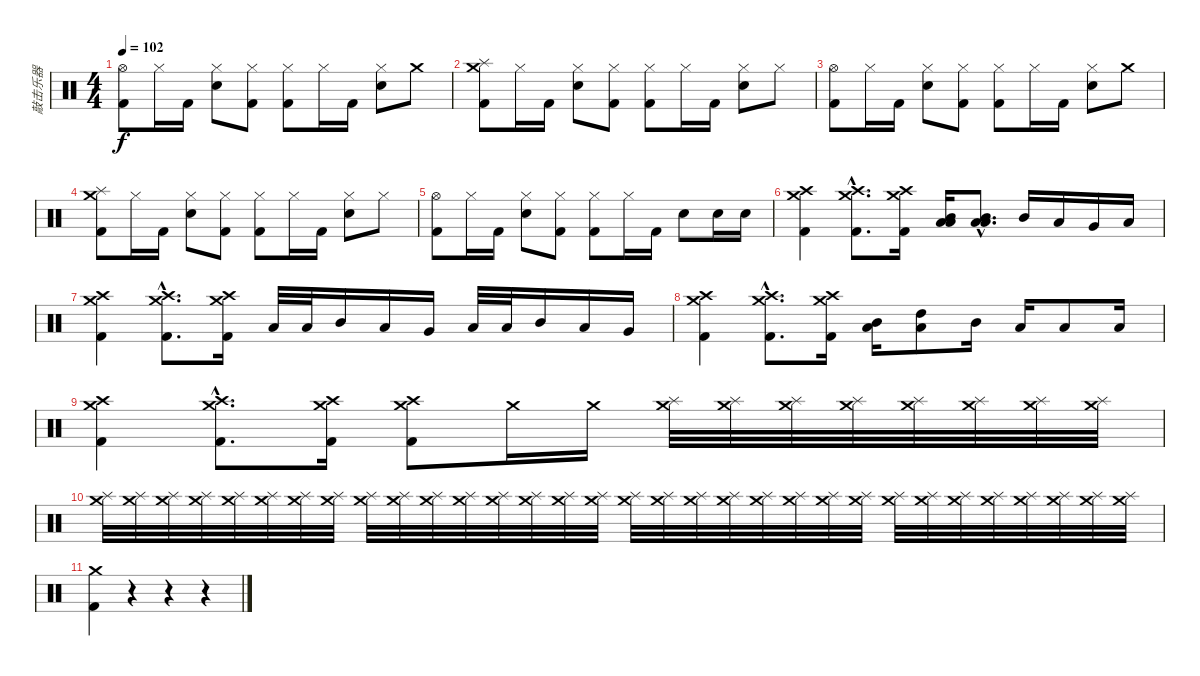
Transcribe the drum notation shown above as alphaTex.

\track ("敲击乐器" "敲击乐器") {instrument percussion}
\staff {score}
\articulation defaults
\ts (4 4)
\tempo 102
\clef neutral
\ks c
("Hi-Hat (open)" "Kick (hit) 2").8{dy f} "Hi-Hat (closed)".16 "Kick (hit) 2".16 ("Hi-Hat (closed)" "Electric Snare (hit)").8 ("Hi-Hat (closed)" "Kick (hit) 2").8 ("Hi-Hat (closed)" "Kick (hit) 2").8 "Hi-Hat (closed)".16 "Kick (hit) 2".16 ("Hi-Hat (closed)" "Electric Snare (hit)").8 "Crash medium (hit)".8 |
("Splash (hit)" "Crash medium (hit)" "Kick (hit) 2").8 "Hi-Hat (closed)".16 "Kick (hit) 2".16 ("Hi-Hat (closed)" "Electric Snare (hit)").8 ("Hi-Hat (closed)" "Kick (hit) 2").8 ("Hi-Hat (closed)" "Kick (hit) 2").8 "Hi-Hat (closed)".16 "Kick (hit) 2".16 ("Hi-Hat (closed)" "Electric Snare (hit)").8 "Hi-Hat (closed)".8 |
("Hi-Hat (open)" "Kick (hit) 2").8 "Hi-Hat (closed)".16 "Kick (hit) 2".16 ("Hi-Hat (closed)" "Electric Snare (hit)").8 ("Hi-Hat (closed)" "Kick (hit) 2").8 ("Hi-Hat (closed)" "Kick (hit) 2").8 "Hi-Hat (closed)".16 "Kick (hit) 2".16 ("Hi-Hat (closed)" "Electric Snare (hit)").8 "Crash medium (hit)".8 |
("Splash (hit)" "Crash medium (hit)" "Kick (hit) 2").8 "Hi-Hat (closed)".16 "Kick (hit) 2".16 ("Hi-Hat (closed)" "Electric Snare (hit)").8 ("Hi-Hat (closed)" "Kick (hit) 2").8 ("Hi-Hat (closed)" "Kick (hit) 2").8 "Hi-Hat (closed)".16 "Kick (hit) 2".16 ("Hi-Hat (closed)" "Electric Snare (hit)").8 "Hi-Hat (closed)".8 |
("Hi-Hat (open)" "Kick (hit) 2").8 "Hi-Hat (closed)".16 "Kick (hit) 2".16 ("Hi-Hat (closed)" "Electric Snare (hit)").8 ("Hi-Hat (closed)" "Kick (hit) 2").8 ("Hi-Hat (closed)" "Kick (hit) 2").8 "Hi-Hat (closed)".16 "Kick (hit) 2".16 "Electric Snare (hit)".8 "Electric Snare (hit)".16 "Electric Snare (hit)".16 |
("Crash high (hit)" "Crash medium (hit)" "Kick (hit) 2").4 ("Crash high (hit)"{hac} "Crash medium (hit)"{hac} "Kick (hit) 2"{hac}).8{d} ("Crash high (hit)" "Crash medium (hit)" "Kick (hit) 2").16 ("Low Tom (hit)" "Mid Tom (hit)" "Low Floor Tom (hit)").16 ("Mid Tom (hit)"{hac} "Low Tom (hit)"{hac} "Low Floor Tom (hit)"{hac}).8{d} "Mid Tom (hit)".16 "Low Tom (hit)".16 "Very Low Tom (hit)".16 "Low Floor Tom (hit)".16 |
("Crash high (hit)" "Crash medium (hit)" "Kick (hit) 2").4 ("Crash high (hit)"{hac} "Crash medium (hit)"{hac} "Kick (hit) 2"{hac}).8{d} ("Crash high (hit)" "Crash medium (hit)" "Kick (hit) 2").16 "Low Floor Tom (hit)".32 "Low Tom (hit)".32 "Mid Tom (hit)".16 "Low Tom (hit)".16 "Very Low Tom (hit)".16 "Low Floor Tom (hit)".32 "Low Tom (hit)".32 "Mid Tom (hit)".16 "Low Tom (hit)".16 "Very Low Tom (hit)".16 |
("Crash high (hit)" "Crash medium (hit)" "Kick (hit) 2").4 ("Crash high (hit)"{hac} "Crash medium (hit)"{hac} "Kick (hit) 2"{hac}).8{d} ("Crash high (hit)" "Crash medium (hit)" "Kick (hit) 2").16 ("Mid Tom (hit)" "Low Floor Tom (hit)").16 ("High Tom (hit)" "Low Floor Tom (hit)").8 "Mid Tom (hit)".16 "Low Tom (hit)".16 "Low Tom (hit)".8 "Low Floor Tom (hit)".16 |
("Crash medium (hit)" "Crash high (hit)" "Kick (hit) 2").4 ("Crash medium (hit)"{hac} "Crash high (hit)"{hac} "Kick (hit) 2"{hac}).8{d} ("Crash medium (hit)" "Crash high (hit)" "Kick (hit) 2").16 ("Crash medium (hit)" "Crash high (hit)" "Kick (hit) 2").8 "Crash medium (hit)".16 "Crash medium (hit)".16 ("Crash medium (hit)" "Splash (hit)").32 ("Crash medium (hit)" "Splash (hit)").32 ("Crash medium (hit)" "Splash (hit)").32 ("Crash medium (hit)" "Splash (hit)").32 ("Crash medium (hit)" "Splash (hit)").32 ("Crash medium (hit)" "Splash (hit)").32 ("Crash medium (hit)" "Splash (hit)").32 ("Crash medium (hit)" "Splash (hit)").32 |
("Crash medium (hit)" "Splash (hit)").32{volume 7} ("Crash medium (hit)" "Splash (hit)").32 ("Crash medium (hit)" "Splash (hit)").32 ("Crash medium (hit)" "Splash (hit)").32 ("Crash medium (hit)" "Splash (hit)").32 ("Crash medium (hit)" "Splash (hit)").32 ("Crash medium (hit)" "Splash (hit)").32 ("Crash medium (hit)" "Splash (hit)").32 ("Crash medium (hit)" "Splash (hit)").32 ("Crash medium (hit)" "Splash (hit)").32 ("Crash medium (hit)" "Splash (hit)").32 ("Crash medium (hit)" "Splash (hit)").32 ("Crash medium (hit)" "Splash (hit)").32 ("Crash medium (hit)" "Splash (hit)").32 ("Crash medium (hit)" "Splash (hit)").32 ("Crash medium (hit)" "Splash (hit)").32 ("Crash medium (hit)" "Splash (hit)").32 ("Crash medium (hit)" "Splash (hit)").32 ("Crash medium (hit)" "Splash (hit)").32 ("Crash medium (hit)" "Splash (hit)").32 ("Crash medium (hit)" "Splash (hit)").32 ("Crash medium (hit)" "Splash (hit)").32 ("Crash medium (hit)" "Splash (hit)").32 ("Crash medium (hit)" "Splash (hit)").32 ("Crash medium (hit)" "Splash (hit)").32 ("Crash medium (hit)" "Splash (hit)").32 ("Crash medium (hit)" "Splash (hit)").32 ("Crash medium (hit)" "Splash (hit)").32 ("Crash medium (hit)" "Splash (hit)").32 ("Crash medium (hit)" "Splash (hit)").32 ("Crash medium (hit)" "Splash (hit)").32 ("Crash medium (hit)" "Splash (hit)").32 |
("Crash medium (hit)" "Kick (hit) 2").4{volume 14} r.4 r.4 r.4
